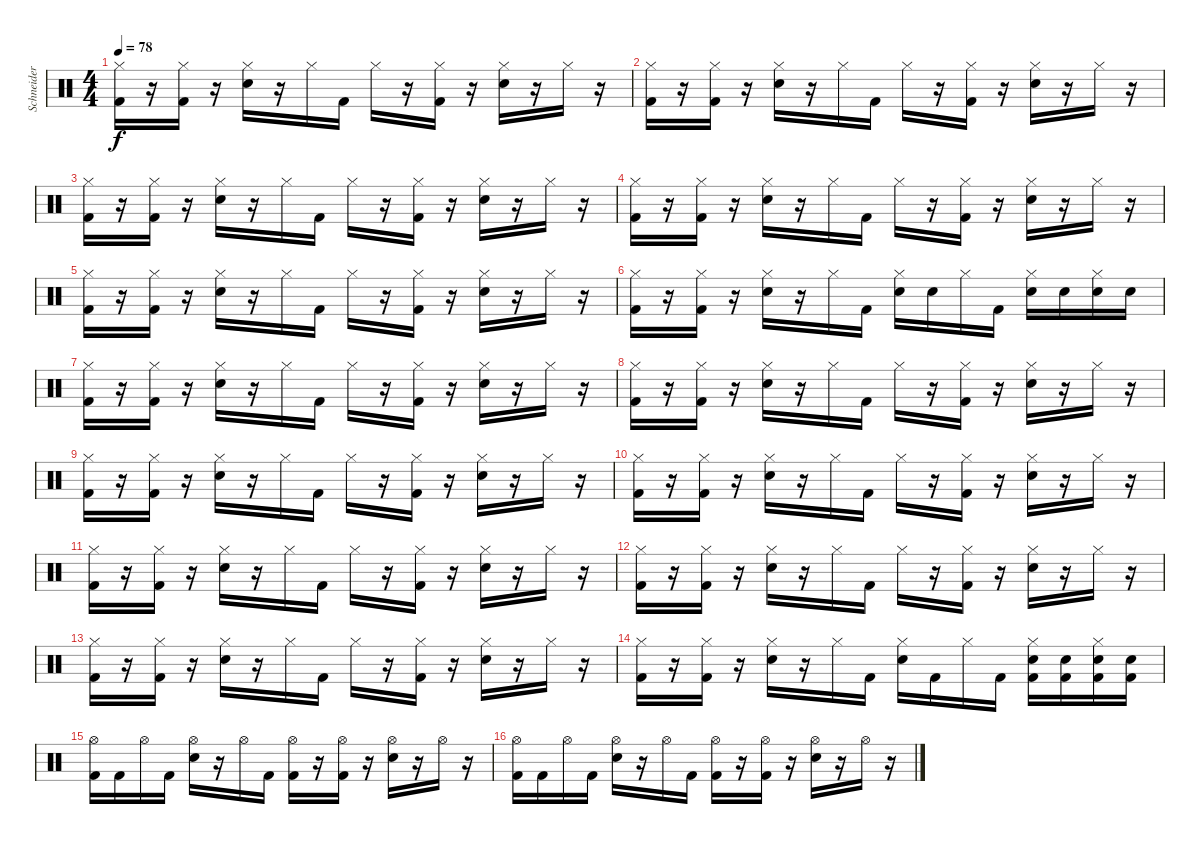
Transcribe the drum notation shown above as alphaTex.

\track ("Schneider - Drums" "Schneider ") {instrument percussion}
\staff {score}
\articulation defaults
\ts (4 4)
\tempo 78
\clef neutral
\ks c
("Hi-Hat (closed)" "Kick (hit) 2").16{dy f} r.16 ("Hi-Hat (closed)" "Kick (hit) 2").16 r.16 ("Hi-Hat (closed)" "Snare (hit) 2").16 r.16 "Hi-Hat (closed)".16 "Kick (hit) 2".16 "Hi-Hat (closed)".16 r.16 ("Hi-Hat (closed)" "Kick (hit) 2").16 r.16 ("Hi-Hat (closed)" "Snare (hit) 2").16 r.16 "Hi-Hat (closed)".16 r.16 |
("Hi-Hat (closed)" "Kick (hit) 2").16 r.16 ("Hi-Hat (closed)" "Kick (hit) 2").16 r.16 ("Hi-Hat (closed)" "Snare (hit) 2").16 r.16 "Hi-Hat (closed)".16 "Kick (hit) 2".16 "Hi-Hat (closed)".16 r.16 ("Hi-Hat (closed)" "Kick (hit) 2").16 r.16 ("Hi-Hat (closed)" "Snare (hit) 2").16 r.16 "Hi-Hat (closed)".16 r.16 |
("Hi-Hat (closed)" "Kick (hit) 2").16 r.16 ("Hi-Hat (closed)" "Kick (hit) 2").16 r.16 ("Hi-Hat (closed)" "Snare (hit) 2").16 r.16 "Hi-Hat (closed)".16 "Kick (hit) 2".16 "Hi-Hat (closed)".16 r.16 ("Hi-Hat (closed)" "Kick (hit) 2").16 r.16 ("Hi-Hat (closed)" "Snare (hit) 2").16 r.16 "Hi-Hat (closed)".16 r.16 |
("Hi-Hat (closed)" "Kick (hit) 2").16 r.16 ("Hi-Hat (closed)" "Kick (hit) 2").16 r.16 ("Hi-Hat (closed)" "Snare (hit) 2").16 r.16 "Hi-Hat (closed)".16 "Kick (hit) 2".16 "Hi-Hat (closed)".16 r.16 ("Hi-Hat (closed)" "Kick (hit) 2").16 r.16 ("Hi-Hat (closed)" "Snare (hit) 2").16 r.16 "Hi-Hat (closed)".16 r.16 |
("Hi-Hat (closed)" "Kick (hit) 2").16 r.16 ("Hi-Hat (closed)" "Kick (hit) 2").16 r.16 ("Hi-Hat (closed)" "Snare (hit) 2").16 r.16 "Hi-Hat (closed)".16 "Kick (hit) 2".16 "Hi-Hat (closed)".16 r.16 ("Hi-Hat (closed)" "Kick (hit) 2").16 r.16 ("Hi-Hat (closed)" "Snare (hit) 2").16 r.16 "Hi-Hat (closed)".16 r.16 |
("Hi-Hat (closed)" "Kick (hit) 2").16 r.16 ("Hi-Hat (closed)" "Kick (hit) 2").16 r.16 ("Hi-Hat (closed)" "Snare (hit) 2").16 r.16 "Hi-Hat (closed)".16 "Kick (hit) 2".16 ("Hi-Hat (closed)" "Snare (hit) 2").16 "Snare (hit) 2".16 "Hi-Hat (closed)".16 "Kick (hit) 2".16 ("Hi-Hat (closed)" "Snare (hit) 2").16 "Snare (hit) 2".16 ("Hi-Hat (closed)" "Snare (hit) 2").16 "Snare (hit) 2".16 |
("Hi-Hat (closed)" "Kick (hit) 2").16 r.16 ("Hi-Hat (closed)" "Kick (hit) 2").16 r.16 ("Hi-Hat (closed)" "Snare (hit) 2").16 r.16 "Hi-Hat (closed)".16 "Kick (hit) 2".16 "Hi-Hat (closed)".16 r.16 ("Hi-Hat (closed)" "Kick (hit) 2").16 r.16 ("Hi-Hat (closed)" "Snare (hit) 2").16 r.16 "Hi-Hat (closed)".16 r.16 |
("Hi-Hat (closed)" "Kick (hit) 2").16 r.16 ("Hi-Hat (closed)" "Kick (hit) 2").16 r.16 ("Hi-Hat (closed)" "Snare (hit) 2").16 r.16 "Hi-Hat (closed)".16 "Kick (hit) 2".16 "Hi-Hat (closed)".16 r.16 ("Hi-Hat (closed)" "Kick (hit) 2").16 r.16 ("Hi-Hat (closed)" "Snare (hit) 2").16 r.16 "Hi-Hat (closed)".16 r.16 |
("Hi-Hat (closed)" "Kick (hit) 2").16 r.16 ("Hi-Hat (closed)" "Kick (hit) 2").16 r.16 ("Hi-Hat (closed)" "Snare (hit) 2").16 r.16 "Hi-Hat (closed)".16 "Kick (hit) 2".16 "Hi-Hat (closed)".16 r.16 ("Hi-Hat (closed)" "Kick (hit) 2").16 r.16 ("Hi-Hat (closed)" "Snare (hit) 2").16 r.16 "Hi-Hat (closed)".16 r.16 |
("Hi-Hat (closed)" "Kick (hit) 2").16 r.16 ("Hi-Hat (closed)" "Kick (hit) 2").16 r.16 ("Hi-Hat (closed)" "Snare (hit) 2").16 r.16 "Hi-Hat (closed)".16 "Kick (hit) 2".16 "Hi-Hat (closed)".16 r.16 ("Hi-Hat (closed)" "Kick (hit) 2").16 r.16 ("Hi-Hat (closed)" "Snare (hit) 2").16 r.16 "Hi-Hat (closed)".16 r.16 |
("Hi-Hat (closed)" "Kick (hit) 2").16 r.16 ("Hi-Hat (closed)" "Kick (hit) 2").16 r.16 ("Hi-Hat (closed)" "Snare (hit) 2").16 r.16 "Hi-Hat (closed)".16 "Kick (hit) 2".16 "Hi-Hat (closed)".16 r.16 ("Hi-Hat (closed)" "Kick (hit) 2").16 r.16 ("Hi-Hat (closed)" "Snare (hit) 2").16 r.16 "Hi-Hat (closed)".16 r.16 |
("Hi-Hat (closed)" "Kick (hit) 2").16 r.16 ("Hi-Hat (closed)" "Kick (hit) 2").16 r.16 ("Hi-Hat (closed)" "Snare (hit) 2").16 r.16 "Hi-Hat (closed)".16 "Kick (hit) 2".16 "Hi-Hat (closed)".16 r.16 ("Hi-Hat (closed)" "Kick (hit) 2").16 r.16 ("Hi-Hat (closed)" "Snare (hit) 2").16 r.16 "Hi-Hat (closed)".16 r.16 |
("Hi-Hat (closed)" "Kick (hit) 2").16 r.16 ("Hi-Hat (closed)" "Kick (hit) 2").16 r.16 ("Hi-Hat (closed)" "Snare (hit) 2").16 r.16 "Hi-Hat (closed)".16 "Kick (hit) 2".16 "Hi-Hat (closed)".16 r.16 ("Hi-Hat (closed)" "Kick (hit) 2").16 r.16 ("Hi-Hat (closed)" "Snare (hit) 2").16 r.16 "Hi-Hat (closed)".16 r.16 |
("Hi-Hat (closed)" "Kick (hit) 2").16 r.16 ("Hi-Hat (closed)" "Kick (hit) 2").16 r.16 ("Hi-Hat (closed)" "Snare (hit) 2").16 r.16 "Hi-Hat (closed)".16 "Kick (hit) 2".16 ("Hi-Hat (closed)" "Snare (hit) 2").16 "Kick (hit) 2".16 "Hi-Hat (closed)".16 "Kick (hit) 2".16 ("Hi-Hat (closed)" "Snare (hit) 2" "Kick (hit) 2").16 ("Snare (hit) 2" "Kick (hit) 2").16 ("Hi-Hat (closed)" "Snare (hit) 2" "Kick (hit) 2").16 ("Snare (hit) 2" "Kick (hit) 2").16 |
("Hi-Hat (open)" "Kick (hit) 2").16 "Kick (hit) 2".16 "Hi-Hat (open)".16 "Kick (hit) 2".16 ("Hi-Hat (open)" "Snare (hit) 2").16 r.16 "Hi-Hat (open)".16 "Kick (hit) 2".16 ("Hi-Hat (open)" "Kick (hit) 2").16 r.16 ("Hi-Hat (open)" "Kick (hit) 2").16 r.16 ("Hi-Hat (open)" "Snare (hit) 2").16 r.16 "Hi-Hat (open)".16 r.16 |
("Hi-Hat (open)" "Kick (hit) 2").16 "Kick (hit) 2".16 "Hi-Hat (open)".16 "Kick (hit) 2".16 ("Hi-Hat (open)" "Snare (hit) 2").16 r.16 "Hi-Hat (open)".16 "Kick (hit) 2".16 ("Hi-Hat (open)" "Kick (hit) 2").16 r.16 ("Hi-Hat (open)" "Kick (hit) 2").16 r.16 ("Hi-Hat (open)" "Snare (hit) 2").16 r.16 "Hi-Hat (open)".16 r.16
